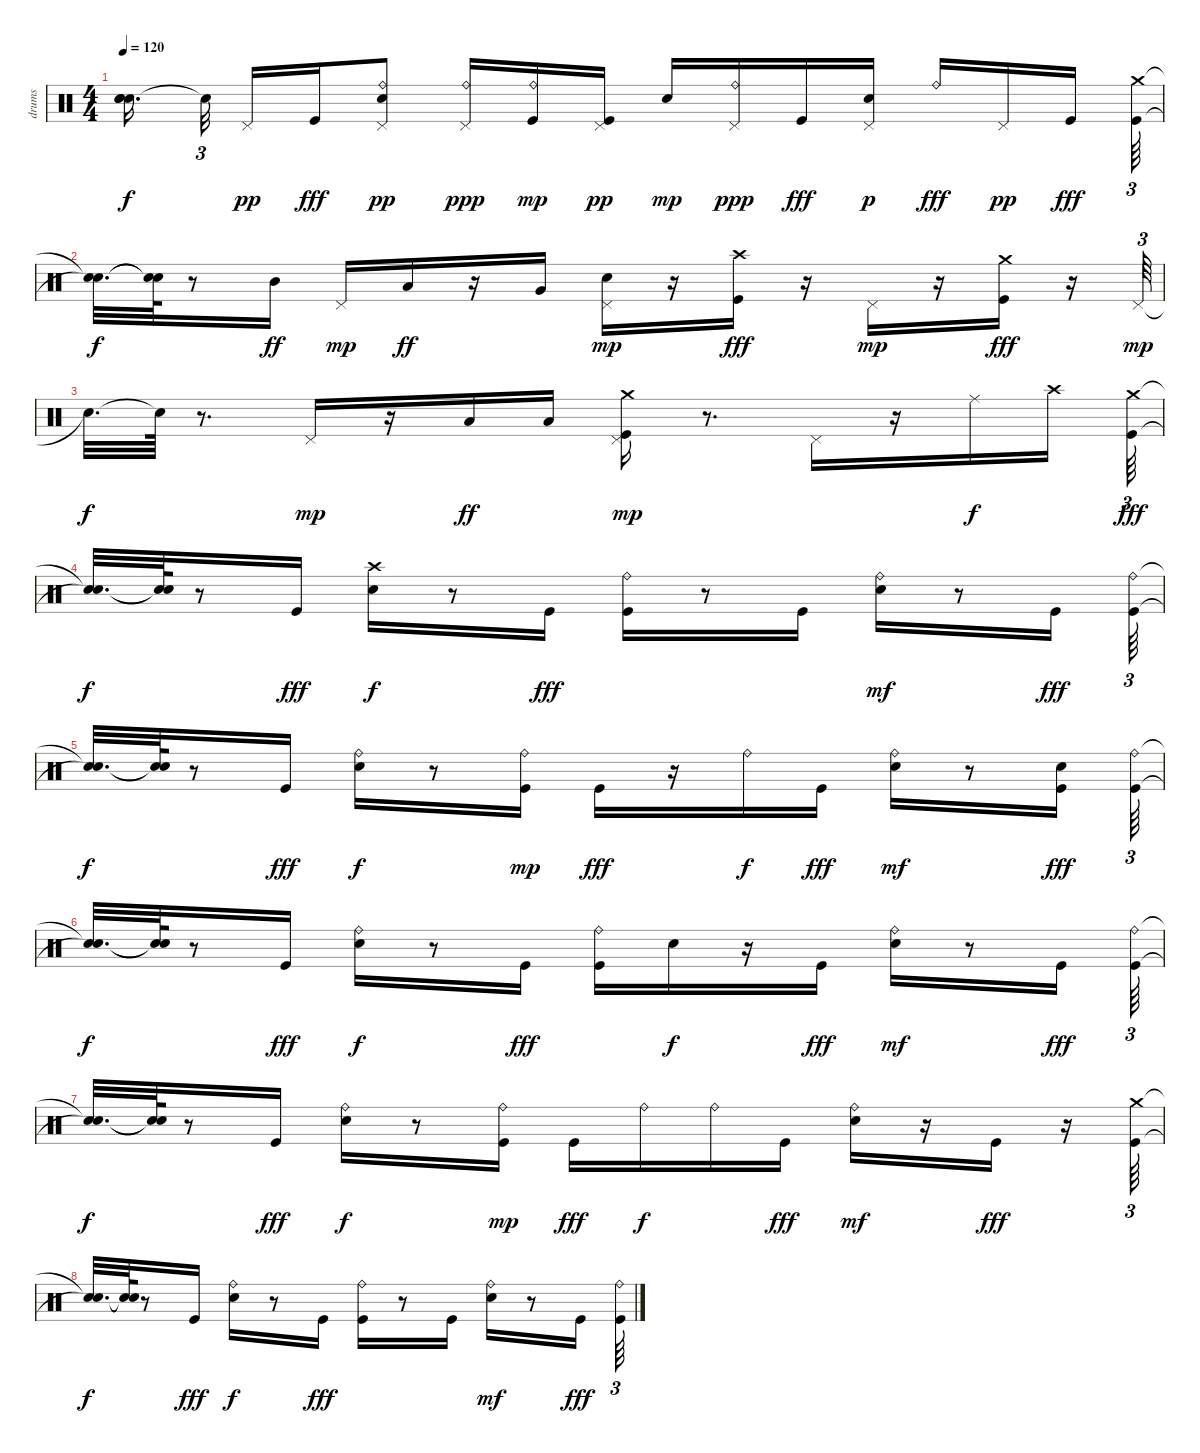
\track ("drums" "drums") {instrument percussion}
\staff {score}
\articulation defaults
\ts (4 4)
\tempo 120
\clef neutral
\ks c
("Snare (hit)"{t} "Snare (hit)"{t} "Snare (hit)"{t}).16{d dy f beam splitsecondary} "Snare (hit)"{t}.32{tu (3 2) beam splitsecondary} "Pedal Hi-Hat (hit)".16{dy pp} "Kick (hit)".16{dy fff} ("Snare (hit) 2" "Ride (bell)" "Pedal Hi-Hat (hit)").8{dy pp} ("Ride (bell)" "Pedal Hi-Hat (hit)").16{dy ppp} ("Kick (hit)" "Ride (bell)").16{dy mp} ("Kick (hit)" "Pedal Hi-Hat (hit)").16{dy pp} "Snare (hit) 2".16{dy mp} ("Ride (bell)" "Pedal Hi-Hat (hit)").16{dy ppp} "Kick (hit)".16{dy fff} ("Snare (hit) 2" "Pedal Hi-Hat (hit)").16{dy p} "Ride (bell)".16{dy fff} "Pedal Hi-Hat (hit)".16{dy pp} "Kick (hit)".16{dy fff beam splitsecondary} ("Kick (hit)" "Crash medium (hit)").64{tu (3 2)} |
("Snare (hit)"{t} "Snare (hit)"{t}).32{d dy f} ("Snare (hit)"{t} "Snare (hit)"{t}).64 r.8 "Mid Tom (hit)".16{dy ff} "Pedal Hi-Hat (hit)".16{dy mp} "Low Tom (hit)".16{dy ff} r.16 "Very Low Tom (hit)".16 ("Snare (hit) 2" "Pedal Hi-Hat (hit)").16{dy mp} r.16 ("Kick (hit)" "Crash high (hit)").16{dy fff} r.16 "Pedal Hi-Hat (hit)".16{dy mp} r.16 ("Kick (hit)" "Crash medium (hit)").16{dy fff} r.16 "Pedal Hi-Hat (hit)".64{tu (3 2) dy mp} |
"Snare (hit)"{t}.32{d dy f} "Snare (hit)"{t}.64 r.8{d} "Pedal Hi-Hat (hit)".16{dy mp} r.16 "Low Tom (hit)".16{dy ff} "Low Tom (hit)".16 ("Kick (hit)" "Crash medium (hit)" "Pedal Hi-Hat (hit)").16{dy mp} r.8{d} "Pedal Hi-Hat (hit)".16 r.16 "Ride (middle)".16{dy f} "Crash high (hit)".16 ("Kick (hit)" "Crash medium (hit)").64{tu (3 2) dy fff} |
("Snare (hit)"{t} "Snare (hit)"{t}).32{d dy f} ("Snare (hit)"{t} "Snare (hit)"{t}).64 r.8 "Kick (hit)".16{dy fff} ("Snare (hit) 2" "Crash high (hit)").16{dy f} r.8 "Kick (hit)".16{dy fff} ("Kick (hit)" "Ride (bell)").16 r.8 "Kick (hit)".16 ("Snare (hit) 2" "Ride (bell)").16{dy mf} r.8 "Kick (hit)".16{dy fff} ("Kick (hit)" "Ride (bell)").64{tu (3 2)} |
("Snare (hit)"{t} "Snare (hit)"{t}).32{d dy f} ("Snare (hit)"{t} "Snare (hit)"{t}).64 r.8 "Kick (hit)".16{dy fff} ("Snare (hit) 2" "Ride (bell)").16{dy f} r.8 ("Kick (hit)" "Ride (bell)").16{dy mp} "Kick (hit)".16{dy fff} r.16 "Ride (bell)".16{dy f} "Kick (hit)".16{dy fff} ("Snare (hit) 2" "Ride (bell)").16{dy mf} r.8 ("Kick (hit)" "Snare (hit) 2").16{dy fff} ("Kick (hit)" "Ride (bell)").64{tu (3 2)} |
("Snare (hit)"{t} "Snare (hit)"{t}).32{d dy f} ("Snare (hit)"{t} "Snare (hit)"{t}).64 r.8 "Kick (hit)".16{dy fff} ("Snare (hit) 2" "Ride (bell)").16{dy f} r.8 "Kick (hit)".16{dy fff} ("Kick (hit)" "Ride (bell)").16 "Snare (hit) 2".16{dy f} r.16 "Kick (hit)".16{dy fff} ("Snare (hit) 2" "Ride (bell)").16{dy mf} r.8 "Kick (hit)".16{dy fff} ("Kick (hit)" "Ride (bell)").64{tu (3 2)} |
("Snare (hit)"{t} "Snare (hit)"{t}).32{d dy f} ("Snare (hit)"{t} "Snare (hit)"{t}).64 r.8 "Kick (hit)".16{dy fff} ("Snare (hit) 2" "Ride (bell)").16{dy f} r.8 ("Kick (hit)" "Ride (bell)").16{dy mp} "Kick (hit)".16{dy fff} "Ride (bell)".16{dy f} "Ride (bell)".16 "Kick (hit)".16{dy fff} ("Snare (hit) 2" "Ride (bell)").16{dy mf} r.16 "Kick (hit)".16{dy fff} r.16 ("Kick (hit)" "Crash medium (hit)").64{tu (3 2)} |
("Snare (hit)"{t} "Snare (hit)"{t}).32{d dy f} ("Snare (hit)"{t} "Snare (hit)"{t}).64 r.8 "Kick (hit)".16{dy fff} ("Snare (hit) 2" "Ride (bell)").16{dy f} r.8 "Kick (hit)".16{dy fff} ("Kick (hit)" "Ride (bell)").16 r.8 "Kick (hit)".16 ("Snare (hit) 2" "Ride (bell)").16{dy mf} r.8 "Kick (hit)".16{dy fff} ("Kick (hit)" "Ride (bell)").64{tu (3 2)}
